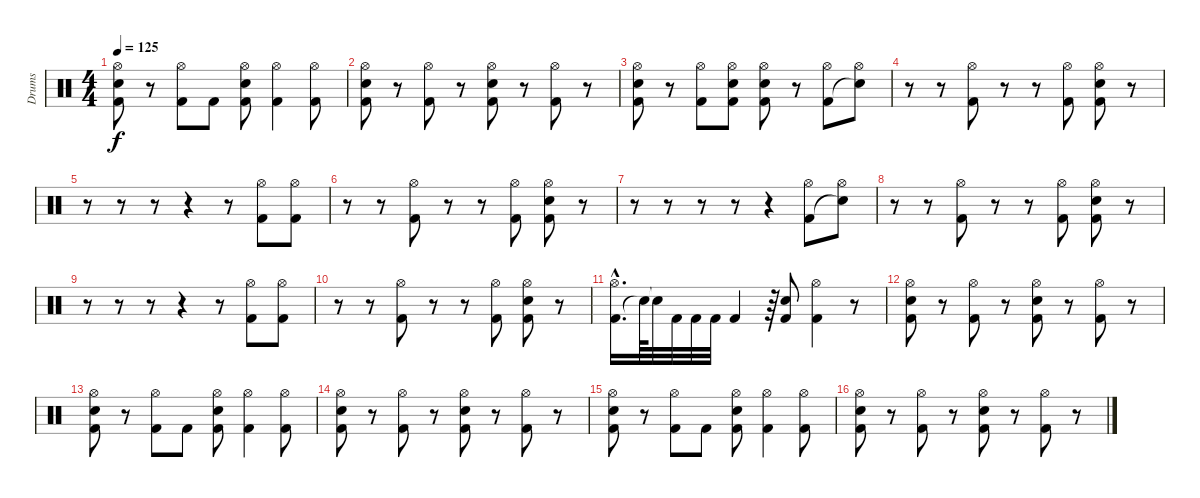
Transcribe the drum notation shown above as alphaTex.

\track ("Drums" "Drums") {instrument percussion}
\staff {score}
\articulation defaults
\ts (4 4)
\tempo 125
\clef neutral
\ks c
("Kick (hit) 2" "Snare (hit) 2" "Hi-Hat (open)").8{dy f} r.8 ("Kick (hit) 2" "Hi-Hat (open)").8 "Kick (hit) 2".8 ("Kick (hit) 2" "Snare (hit) 2" "Hi-Hat (open)").8 ("Kick (hit) 2" "Hi-Hat (open)").4 ("Kick (hit) 2" "Hi-Hat (open)").8 |
("Kick (hit) 2" "Snare (hit) 2" "Hi-Hat (open)").8 r.8 ("Kick (hit) 2" "Hi-Hat (open)").8 r.8 ("Kick (hit) 2" "Snare (hit) 2" "Hi-Hat (open)").8 r.8 ("Kick (hit) 2" "Hi-Hat (open)").8 r.8 |
("Kick (hit) 2" "Snare (hit) 2" "Hi-Hat (open)").8 r.8 ("Kick (hit) 2" "Hi-Hat (open)").8 ("Kick (hit) 2" "Snare (hit) 2" "Hi-Hat (open)").8 ("Kick (hit) 2" "Snare (hit) 2" "Hi-Hat (open)").8 r.8 ("Kick (hit) 2" "Hi-Hat (open)").8 ("Snare (hit)"{t} "Hi-Hat (open)").8 |
r.8 r.8 ("Kick (hit) 2" "Hi-Hat (open)").8 r.8 r.8 ("Kick (hit) 2" "Hi-Hat (open)").8 ("Kick (hit) 2" "Snare (hit) 2" "Hi-Hat (open)").8 r.8 |
r.8 r.8 r.8 r.4 r.8 ("Kick (hit) 2" "Hi-Hat (open)").8 ("Kick (hit) 2" "Hi-Hat (open)").8 |
r.8 r.8 ("Kick (hit) 2" "Hi-Hat (open)").8 r.8 r.8 ("Kick (hit) 2" "Hi-Hat (open)").8 ("Kick (hit) 2" "Snare (hit) 2" "Hi-Hat (open)").8 r.8 |
r.8 r.8 r.8 r.8 r.4 ("Kick (hit) 2" "Hi-Hat (open)").8 ("Snare (hit)"{t} "Hi-Hat (open)").8 |
r.8 r.8 ("Kick (hit) 2" "Hi-Hat (open)").8 r.8 r.8 ("Kick (hit) 2" "Hi-Hat (open)").8 ("Kick (hit) 2" "Snare (hit) 2" "Hi-Hat (open)").8 r.8 |
r.8 r.8 r.8 r.4 r.8 ("Kick (hit) 2" "Hi-Hat (open)").8 ("Kick (hit) 2" "Hi-Hat (open)").8 |
r.8 r.8 ("Kick (hit) 2" "Hi-Hat (open)").8 r.8 r.8 ("Kick (hit) 2" "Hi-Hat (open)").8 ("Kick (hit) 2" "Snare (hit) 2" "Hi-Hat (open)").8 r.8 |
("Kick (hit) 2" "Hi-Hat (open)"{hac}).16{d} "Snare (hit)"{t}.64 "Snare (hit)"{t}.32 "Kick (hit) 2".32 "Kick (hit) 2".32 "Kick (hit) 2".32 "Kick (hit) 2".4 r.64 ("Kick (hit) 2" "Snare (hit) 2").8 ("Kick (hit) 2" "Hi-Hat (open)").4 r.8 |
("Kick (hit) 2" "Snare (hit) 2" "Hi-Hat (open)").8 r.8 ("Kick (hit) 2" "Hi-Hat (open)").8 r.8 ("Kick (hit) 2" "Snare (hit) 2" "Hi-Hat (open)").8 r.8 ("Kick (hit) 2" "Hi-Hat (open)").8 r.8 |
("Kick (hit) 2" "Snare (hit) 2" "Hi-Hat (open)").8 r.8 ("Kick (hit) 2" "Hi-Hat (open)").8 "Kick (hit) 2".8 ("Kick (hit) 2" "Snare (hit) 2" "Hi-Hat (open)").8 ("Kick (hit) 2" "Hi-Hat (open)").4 ("Kick (hit) 2" "Hi-Hat (open)").8 |
("Kick (hit) 2" "Snare (hit) 2" "Hi-Hat (open)").8 r.8 ("Kick (hit) 2" "Hi-Hat (open)").8 r.8 ("Kick (hit) 2" "Snare (hit) 2" "Hi-Hat (open)").8 r.8 ("Kick (hit) 2" "Hi-Hat (open)").8 r.8 |
("Kick (hit) 2" "Snare (hit) 2" "Hi-Hat (open)").8 r.8 ("Kick (hit) 2" "Hi-Hat (open)").8 "Kick (hit) 2".8 ("Kick (hit) 2" "Snare (hit) 2" "Hi-Hat (open)").8 ("Kick (hit) 2" "Hi-Hat (open)").4 ("Kick (hit) 2" "Hi-Hat (open)").8 |
("Kick (hit) 2" "Snare (hit) 2" "Hi-Hat (open)").8 r.8 ("Kick (hit) 2" "Hi-Hat (open)").8 r.8 ("Kick (hit) 2" "Snare (hit) 2" "Hi-Hat (open)").8 r.8 ("Kick (hit) 2" "Hi-Hat (open)").8 r.8
